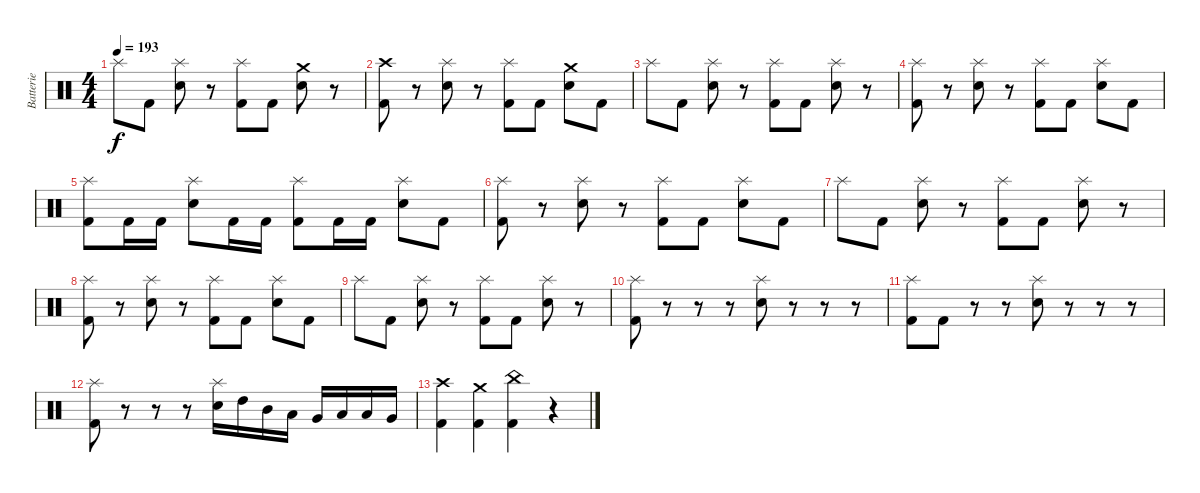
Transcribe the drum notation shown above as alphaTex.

\track ("Batterie" "Batterie") {instrument percussion}
\staff {score}
\articulation defaults
\ts (4 4)
\tempo 193
\clef neutral
\ks c "Splash (hit)".8{dy f} "Kick (hit) 2".8
("Electric Snare (hit)" "Splash (hit)").8 r.8 ("Kick (hit) 2" "Splash (hit)").8 "Kick (hit) 2".8 ("Electric Snare (hit)" "Crash medium (hit)").8 r.8 |
("Kick (hit) 2" "Crash high (hit)").8 r.8 ("Electric Snare (hit)" "Splash (hit)").8 r.8 ("Kick (hit) 2" "Splash (hit)").8 "Kick (hit) 2".8 ("Electric Snare (hit)" "Crash medium (hit)").8 "Kick (hit) 2".8 |
"Splash (hit)".8 "Kick (hit) 2".8 ("Electric Snare (hit)" "Splash (hit)").8 r.8 ("Kick (hit) 2" "Splash (hit)").8 "Kick (hit) 2".8 ("Electric Snare (hit)" "Splash (hit)").8 r.8 |
("Kick (hit) 2" "Splash (hit)").8 r.8 ("Electric Snare (hit)" "Splash (hit)").8 r.8 ("Kick (hit) 2" "Splash (hit)").8 "Kick (hit) 2".8 ("Electric Snare (hit)" "Splash (hit)").8 "Kick (hit) 2".8 |
("Kick (hit) 2" "Splash (hit)").8 "Kick (hit) 2".16 "Kick (hit) 2".16 ("Electric Snare (hit)" "Splash (hit)").8 "Kick (hit) 2".16 "Kick (hit) 2".16 ("Kick (hit) 2" "Splash (hit)").8 "Kick (hit) 2".16 "Kick (hit) 2".16 ("Electric Snare (hit)" "Splash (hit)").8 "Kick (hit) 2".8 |
("Kick (hit) 2" "Splash (hit)").8 r.8 ("Electric Snare (hit)" "Splash (hit)").8 r.8 ("Kick (hit) 2" "Splash (hit)").8 "Kick (hit) 2".8 ("Electric Snare (hit)" "Splash (hit)").8 "Kick (hit) 2".8 |
"Splash (hit)".8 "Kick (hit) 2".8 ("Electric Snare (hit)" "Splash (hit)").8 r.8 ("Kick (hit) 2" "Splash (hit)").8 "Kick (hit) 2".8 ("Electric Snare (hit)" "Splash (hit)").8 r.8 |
("Kick (hit) 2" "Splash (hit)").8 r.8 ("Electric Snare (hit)" "Splash (hit)").8 r.8 ("Kick (hit) 2" "Splash (hit)").8 "Kick (hit) 2".8 ("Electric Snare (hit)" "Splash (hit)").8 "Kick (hit) 2".8 |
"Splash (hit)".8 "Kick (hit) 2".8 ("Electric Snare (hit)" "Splash (hit)").8 r.8 ("Kick (hit) 2" "Splash (hit)").8 "Kick (hit) 2".8 ("Electric Snare (hit)" "Splash (hit)").8 r.8 |
("Kick (hit) 2" "Splash (hit)").8 r.8 r.8 r.8 ("Electric Snare (hit)" "Splash (hit)").8 r.8 r.8 r.8 |
("Kick (hit) 2" "Splash (hit)").8 "Kick (hit) 2".8 r.8 r.8 ("Electric Snare (hit)" "Splash (hit)").8 r.8 r.8 r.8 |
("Kick (hit) 2" "Splash (hit)").8 r.8 r.8 r.8 ("Electric Snare (hit)" "Splash (hit)").16 "High Tom (hit)".16 "Mid Tom (hit)".16 "Low Tom (hit)".16 "Very Low Tom (hit)".16 "Low Floor Tom (hit)".16 "Low Tom (hit)".16 "Very Low Tom (hit)".16 |
("Kick (hit) 2" "Crash high (hit)").4 ("Kick (hit) 2" "Crash medium (hit)").4 ("Kick (hit) 2" "China (hit)").4 r.4
